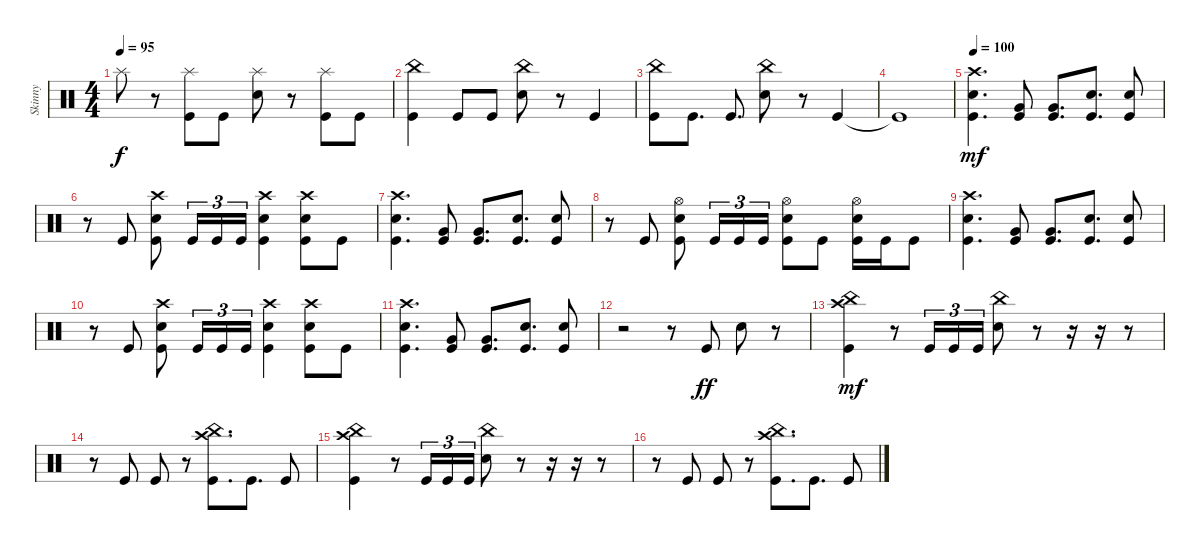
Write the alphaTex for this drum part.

\track ("Skinny" "Skinny") {instrument percussion}
\staff {score}
\articulation defaults
\ts (4 4)
\tempo 95
\clef neutral
\ks c "Splash (hit)".8{dy f}
r.8 ("Kick (hit)" "Splash (hit)").8 "Kick (hit)".8 ("Snare (hit) 2" "Splash (hit)").8 r.8 ("Kick (hit)" "Splash (hit)").8 "Kick (hit)".8 |
("Kick (hit)" "China (hit)").4 "Kick (hit)".8 "Kick (hit)".8 ("China (hit)" "Snare (hit) 2").8 r.8 "Kick (hit)".4 |
("Kick (hit)" "China (hit)").8 "Kick (hit)".8{d} "Kick (hit)".8{d} ("Snare (hit) 2" "China (hit)").8 r.8 "Kick (hit)".4 |
"Kick (hit)"{t}.1 |
\tempo 100
("Kick (hit)" "Snare (hit) 2" "Crash high (hit)").4{d dy mf} ("Kick (hit)" "Very Low Tom (hit)").8 ("Kick (hit)" "Very Low Tom (hit)").8{d} ("Kick (hit)" "Snare (hit) 2").8{d} ("Kick (hit)" "Snare (hit) 2").8 |
r.8 "Kick (hit)".8 ("Kick (hit)" "Snare (hit) 2" "Crash high (hit)").8 "Kick (hit)".16{tu (3 2)} "Kick (hit)".16{tu (3 2)} "Kick (hit)".16{tu (3 2)} ("Kick (hit)" "Snare (hit) 2" "Crash high (hit)").4 ("Kick (hit)" "Snare (hit) 2" "Crash high (hit)").8 "Kick (hit)".8 |
("Kick (hit)" "Snare (hit) 2" "Crash high (hit)").4{d} ("Kick (hit)" "Very Low Tom (hit)").8 ("Kick (hit)" "Very Low Tom (hit)").8{d} ("Kick (hit)" "Snare (hit) 2").8{d} ("Kick (hit)" "Snare (hit) 2").8 |
r.8 "Kick (hit)".8 ("Hi-Hat (open)" "Kick (hit)" "Snare (hit) 2").8 "Kick (hit)".16{tu (3 2)} "Kick (hit)".16{tu (3 2)} "Kick (hit)".16{tu (3 2)} ("Hi-Hat (open)" "Kick (hit)" "Snare (hit) 2").8 "Kick (hit)".8 ("Hi-Hat (open)" "Kick (hit)" "Snare (hit) 2").16 "Kick (hit)".16 "Kick (hit)".8 |
("Kick (hit)" "Snare (hit) 2" "Crash high (hit)").4{d} ("Kick (hit)" "Very Low Tom (hit)").8 ("Kick (hit)" "Very Low Tom (hit)").8{d} ("Kick (hit)" "Snare (hit) 2").8{d} ("Kick (hit)" "Snare (hit) 2").8 |
r.8 "Kick (hit)".8 ("Kick (hit)" "Snare (hit) 2" "Crash high (hit)").8 "Kick (hit)".16{tu (3 2)} "Kick (hit)".16{tu (3 2)} "Kick (hit)".16{tu (3 2)} ("Kick (hit)" "Snare (hit) 2" "Crash high (hit)").4 ("Kick (hit)" "Snare (hit) 2" "Crash high (hit)").8 "Kick (hit)".8 |
("Kick (hit)" "Snare (hit) 2" "Crash high (hit)").4{d} ("Kick (hit)" "Very Low Tom (hit)").8 ("Kick (hit)" "Very Low Tom (hit)").8{d} ("Kick (hit)" "Snare (hit) 2").8{d} ("Kick (hit)" "Snare (hit) 2").8 |
r.2 r.8 "Kick (hit)".8{dy ff} "Snare (hit) 2".8 r.8 |
("China (hit)" "Kick (hit)" "Crash high (hit)").4{dy mf} r.8 "Kick (hit)".16{tu (3 2)} "Kick (hit)".16{tu (3 2)} "Kick (hit)".16{tu (3 2)} ("Snare (hit) 2" "China (hit)").8 r.8 r.16 r.16 r.8 |
r.8 "Kick (hit)".8 "Kick (hit)".8 r.8 ("Kick (hit)" "China (hit)" "Crash high (hit)").8{d} "Kick (hit)".8{d} "Kick (hit)".8 |
("China (hit)" "Kick (hit)" "Crash high (hit)").4 r.8 "Kick (hit)".16{tu (3 2)} "Kick (hit)".16{tu (3 2)} "Kick (hit)".16{tu (3 2)} ("Snare (hit) 2" "China (hit)").8 r.8 r.16 r.16 r.8 |
r.8 "Kick (hit)".8 "Kick (hit)".8 r.8 ("Kick (hit)" "China (hit)" "Crash high (hit)").8{d} "Kick (hit)".8{d} "Kick (hit)".8
